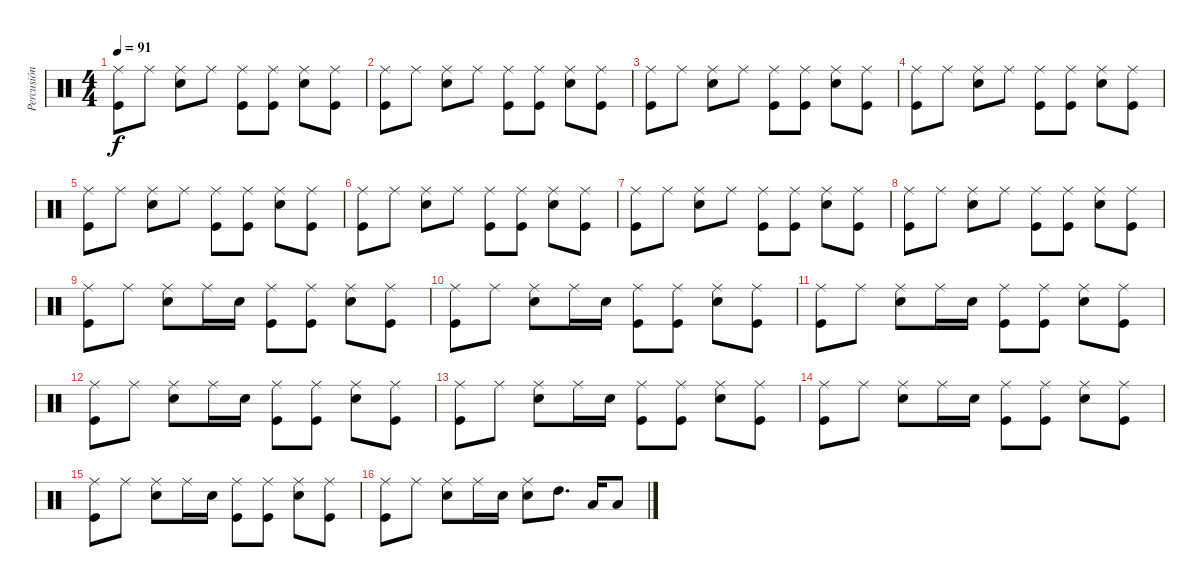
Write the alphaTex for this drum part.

\track ("Percusión" "Percusión") {instrument percussion}
\staff {score}
\articulation defaults
\ts (4 4)
\tempo 91
\clef neutral
\ks c
("Kick (hit)" "Ride (middle)").8{dy f} "Ride (middle)".8 ("Ride (middle)" "Snare (hit) 2").8 "Ride (middle)".8 ("Kick (hit)" "Ride (middle)").8 ("Kick (hit)" "Ride (middle)").8 ("Ride (middle)" "Snare (hit) 2").8 ("Kick (hit)" "Ride (middle)").8 |
("Kick (hit)" "Ride (middle)").8 "Ride (middle)".8 ("Ride (middle)" "Snare (hit) 2").8 "Ride (middle)".8 ("Kick (hit)" "Ride (middle)").8 ("Kick (hit)" "Ride (middle)").8 ("Ride (middle)" "Snare (hit) 2").8 ("Kick (hit)" "Ride (middle)").8 |
("Kick (hit)" "Ride (middle)").8 "Ride (middle)".8 ("Ride (middle)" "Snare (hit) 2").8 "Ride (middle)".8 ("Kick (hit)" "Ride (middle)").8 ("Kick (hit)" "Ride (middle)").8 ("Ride (middle)" "Snare (hit) 2").8 ("Kick (hit)" "Ride (middle)").8 |
("Kick (hit)" "Ride (middle)").8 "Ride (middle)".8 ("Ride (middle)" "Snare (hit) 2").8 "Ride (middle)".8 ("Kick (hit)" "Ride (middle)").8 ("Kick (hit)" "Ride (middle)").8 ("Ride (middle)" "Snare (hit) 2").8 ("Kick (hit)" "Ride (middle)").8 |
("Kick (hit)" "Ride (middle)").8 "Ride (middle)".8 ("Ride (middle)" "Snare (hit) 2").8 "Ride (middle)".8 ("Kick (hit)" "Ride (middle)").8 ("Kick (hit)" "Ride (middle)").8 ("Ride (middle)" "Snare (hit) 2").8 ("Kick (hit)" "Ride (middle)").8 |
("Kick (hit)" "Ride (middle)").8 "Ride (middle)".8 ("Ride (middle)" "Snare (hit) 2").8 "Ride (middle)".8 ("Kick (hit)" "Ride (middle)").8 ("Kick (hit)" "Ride (middle)").8 ("Ride (middle)" "Snare (hit) 2").8 ("Kick (hit)" "Ride (middle)").8 |
("Kick (hit)" "Ride (middle)").8 "Ride (middle)".8 ("Ride (middle)" "Snare (hit) 2").8 "Ride (middle)".8 ("Kick (hit)" "Ride (middle)").8 ("Kick (hit)" "Ride (middle)").8 ("Ride (middle)" "Snare (hit) 2").8 ("Kick (hit)" "Ride (middle)").8 |
("Kick (hit)" "Ride (middle)").8 "Ride (middle)".8 ("Ride (middle)" "Snare (hit) 2").8 "Ride (middle)".8 ("Kick (hit)" "Ride (middle)").8 ("Kick (hit)" "Ride (middle)").8 ("Ride (middle)" "Snare (hit) 2").8 ("Kick (hit)" "Ride (middle)").8 |
("Kick (hit)" "Ride (middle)").8 "Ride (middle)".8 ("Ride (middle)" "Snare (hit) 2").8 "Ride (middle)".16 "Snare (hit) 2".16 ("Kick (hit)" "Ride (middle)").8 ("Kick (hit)" "Ride (middle)").8 ("Ride (middle)" "Snare (hit) 2").8 ("Kick (hit)" "Ride (middle)").8 |
("Kick (hit)" "Ride (middle)").8 "Ride (middle)".8 ("Ride (middle)" "Snare (hit) 2").8 "Ride (middle)".16 "Snare (hit) 2".16 ("Kick (hit)" "Ride (middle)").8 ("Kick (hit)" "Ride (middle)").8 ("Ride (middle)" "Snare (hit) 2").8 ("Kick (hit)" "Ride (middle)").8 |
("Kick (hit)" "Ride (middle)").8 "Ride (middle)".8 ("Ride (middle)" "Snare (hit) 2").8 "Ride (middle)".16 "Snare (hit) 2".16 ("Kick (hit)" "Ride (middle)").8 ("Kick (hit)" "Ride (middle)").8 ("Ride (middle)" "Snare (hit) 2").8 ("Kick (hit)" "Ride (middle)").8 |
("Kick (hit)" "Ride (middle)").8 "Ride (middle)".8 ("Ride (middle)" "Snare (hit) 2").8 "Ride (middle)".16 "Snare (hit) 2".16 ("Kick (hit)" "Ride (middle)").8 ("Kick (hit)" "Ride (middle)").8 ("Ride (middle)" "Snare (hit) 2").8 ("Kick (hit)" "Ride (middle)").8 |
("Kick (hit)" "Ride (middle)").8 "Ride (middle)".8 ("Ride (middle)" "Snare (hit) 2").8 "Ride (middle)".16 "Snare (hit) 2".16 ("Kick (hit)" "Ride (middle)").8 ("Kick (hit)" "Ride (middle)").8 ("Ride (middle)" "Snare (hit) 2").8 ("Kick (hit)" "Ride (middle)").8 |
("Kick (hit)" "Ride (middle)").8 "Ride (middle)".8 ("Ride (middle)" "Snare (hit) 2").8 "Ride (middle)".16 "Snare (hit) 2".16 ("Kick (hit)" "Ride (middle)").8 ("Kick (hit)" "Ride (middle)").8 ("Ride (middle)" "Snare (hit) 2").8 ("Kick (hit)" "Ride (middle)").8 |
("Kick (hit)" "Ride (middle)").8 "Ride (middle)".8 ("Ride (middle)" "Snare (hit) 2").8 "Ride (middle)".16 "Snare (hit) 2".16 ("Kick (hit)" "Ride (middle)").8 ("Kick (hit)" "Ride (middle)").8 ("Ride (middle)" "Snare (hit) 2").8 ("Kick (hit)" "Ride (middle)").8 |
("Kick (hit)" "Ride (middle)").8 "Ride (middle)".8 ("Ride (middle)" "Snare (hit) 2").8 "Ride (middle)".16 "Snare (hit) 2".16 ("Snare (hit) 2" "Ride (middle)").8 "High Tom (hit)".8{d} "Low Tom (hit)".16 "Low Tom (hit)".8
